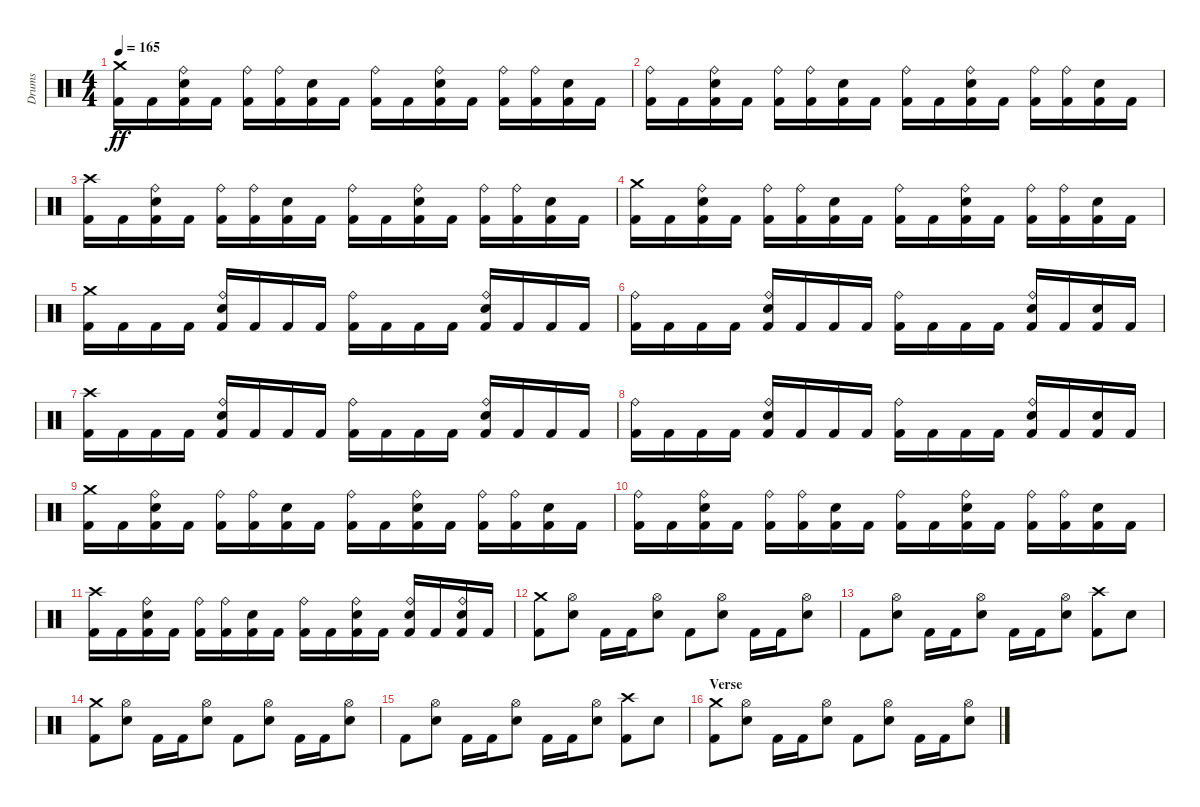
\track ("Drums" "Drums") {instrument percussion}
\staff {score}
\articulation defaults
\ts (4 4)
\tempo 165
\clef neutral
\ks c
("Crash medium (hit)" "Kick (hit) 2").16{dy ff} "Kick (hit) 2".16 ("Ride (bell)" "Electric Snare (hit)" "Kick (hit) 2").16 "Kick (hit) 2".16 ("Ride (bell)" "Kick (hit) 2").16 ("Ride (bell)" "Kick (hit) 2").16 ("Electric Snare (hit)" "Kick (hit) 2").16 "Kick (hit) 2".16 ("Ride (bell)" "Kick (hit) 2").16 "Kick (hit) 2".16 ("Ride (bell)" "Electric Snare (hit)" "Kick (hit) 2").16 "Kick (hit) 2".16 ("Ride (bell)" "Kick (hit) 2").16 ("Ride (bell)" "Kick (hit) 2").16 ("Electric Snare (hit)" "Kick (hit) 2").16 "Kick (hit) 2".16 |
("Ride (bell)" "Kick (hit) 2").16 "Kick (hit) 2".16 ("Ride (bell)" "Electric Snare (hit)" "Kick (hit) 2").16 "Kick (hit) 2".16 ("Ride (bell)" "Kick (hit) 2").16 ("Ride (bell)" "Kick (hit) 2").16 ("Electric Snare (hit)" "Kick (hit) 2").16 "Kick (hit) 2".16 ("Ride (bell)" "Kick (hit) 2").16 "Kick (hit) 2".16 ("Ride (bell)" "Electric Snare (hit)" "Kick (hit) 2").16 "Kick (hit) 2".16 ("Ride (bell)" "Kick (hit) 2").16 ("Ride (bell)" "Kick (hit) 2").16 ("Electric Snare (hit)" "Kick (hit) 2").16 "Kick (hit) 2".16 |
("Crash high (hit)" "Kick (hit) 2").16 "Kick (hit) 2".16 ("Ride (bell)" "Electric Snare (hit)" "Kick (hit) 2").16 "Kick (hit) 2".16 ("Ride (bell)" "Kick (hit) 2").16 ("Ride (bell)" "Kick (hit) 2").16 ("Electric Snare (hit)" "Kick (hit) 2").16 "Kick (hit) 2".16 ("Ride (bell)" "Kick (hit) 2").16 "Kick (hit) 2".16 ("Ride (bell)" "Electric Snare (hit)" "Kick (hit) 2").16 "Kick (hit) 2".16 ("Ride (bell)" "Kick (hit) 2").16 ("Ride (bell)" "Kick (hit) 2").16 ("Electric Snare (hit)" "Kick (hit) 2").16 "Kick (hit) 2".16 |
("Crash medium (hit)" "Kick (hit) 2").16 "Kick (hit) 2".16 ("Ride (bell)" "Electric Snare (hit)" "Kick (hit) 2").16 "Kick (hit) 2".16 ("Ride (bell)" "Kick (hit) 2").16 ("Ride (bell)" "Kick (hit) 2").16 ("Electric Snare (hit)" "Kick (hit) 2").16 "Kick (hit) 2".16 ("Ride (bell)" "Kick (hit) 2").16 "Kick (hit) 2".16 ("Ride (bell)" "Electric Snare (hit)" "Kick (hit) 2").16 "Kick (hit) 2".16 ("Ride (bell)" "Kick (hit) 2").16 ("Ride (bell)" "Kick (hit) 2").16 ("Electric Snare (hit)" "Kick (hit) 2").16 "Kick (hit) 2".16 |
("Crash medium (hit)" "Kick (hit) 2").16 "Kick (hit) 2".16 "Kick (hit) 2".16 "Kick (hit) 2".16 ("Ride (bell)" "Electric Snare (hit)" "Kick (hit) 2").16 "Kick (hit) 2".16 "Kick (hit) 2".16 "Kick (hit) 2".16 ("Ride (bell)" "Kick (hit) 2").16 "Kick (hit) 2".16 "Kick (hit) 2".16 "Kick (hit) 2".16 ("Ride (bell)" "Electric Snare (hit)" "Kick (hit) 2").16 "Kick (hit) 2".16 "Kick (hit) 2".16 "Kick (hit) 2".16 |
("Ride (bell)" "Kick (hit) 2").16 "Kick (hit) 2".16 "Kick (hit) 2".16 "Kick (hit) 2".16 ("Ride (bell)" "Electric Snare (hit)" "Kick (hit) 2").16 "Kick (hit) 2".16 "Kick (hit) 2".16 "Kick (hit) 2".16 ("Ride (bell)" "Kick (hit) 2").16 "Kick (hit) 2".16 "Kick (hit) 2".16 "Kick (hit) 2".16 ("Ride (bell)" "Electric Snare (hit)" "Kick (hit) 2").16 "Kick (hit) 2".16 ("Electric Snare (hit)" "Kick (hit) 2").16 "Kick (hit) 2".16 |
("Crash high (hit)" "Kick (hit) 2").16 "Kick (hit) 2".16 "Kick (hit) 2".16 "Kick (hit) 2".16 ("Ride (bell)" "Electric Snare (hit)" "Kick (hit) 2").16 "Kick (hit) 2".16 "Kick (hit) 2".16 "Kick (hit) 2".16 ("Ride (bell)" "Kick (hit) 2").16 "Kick (hit) 2".16 "Kick (hit) 2".16 "Kick (hit) 2".16 ("Ride (bell)" "Electric Snare (hit)" "Kick (hit) 2").16 "Kick (hit) 2".16 "Kick (hit) 2".16 "Kick (hit) 2".16 |
("Ride (bell)" "Kick (hit) 2").16 "Kick (hit) 2".16 "Kick (hit) 2".16 "Kick (hit) 2".16 ("Ride (bell)" "Electric Snare (hit)" "Kick (hit) 2").16 "Kick (hit) 2".16 "Kick (hit) 2".16 "Kick (hit) 2".16 ("Ride (bell)" "Kick (hit) 2").16 "Kick (hit) 2".16 "Kick (hit) 2".16 "Kick (hit) 2".16 ("Ride (bell)" "Electric Snare (hit)" "Kick (hit) 2").16 "Kick (hit) 2".16 ("Electric Snare (hit)" "Kick (hit) 2").16 "Kick (hit) 2".16 |
("Crash medium (hit)" "Kick (hit) 2").16 "Kick (hit) 2".16 ("Ride (bell)" "Electric Snare (hit)" "Kick (hit) 2").16 "Kick (hit) 2".16 ("Ride (bell)" "Kick (hit) 2").16 ("Ride (bell)" "Kick (hit) 2").16 ("Electric Snare (hit)" "Kick (hit) 2").16 "Kick (hit) 2".16 ("Ride (bell)" "Kick (hit) 2").16 "Kick (hit) 2".16 ("Ride (bell)" "Electric Snare (hit)" "Kick (hit) 2").16 "Kick (hit) 2".16 ("Ride (bell)" "Kick (hit) 2").16 ("Ride (bell)" "Kick (hit) 2").16 ("Electric Snare (hit)" "Kick (hit) 2").16 "Kick (hit) 2".16 |
("Ride (bell)" "Kick (hit) 2").16 "Kick (hit) 2".16 ("Ride (bell)" "Electric Snare (hit)" "Kick (hit) 2").16 "Kick (hit) 2".16 ("Ride (bell)" "Kick (hit) 2").16 ("Ride (bell)" "Kick (hit) 2").16 ("Electric Snare (hit)" "Kick (hit) 2").16 "Kick (hit) 2".16 ("Ride (bell)" "Kick (hit) 2").16 "Kick (hit) 2".16 ("Ride (bell)" "Electric Snare (hit)" "Kick (hit) 2").16 "Kick (hit) 2".16 ("Ride (bell)" "Kick (hit) 2").16 ("Ride (bell)" "Kick (hit) 2").16 ("Electric Snare (hit)" "Kick (hit) 2").16 "Kick (hit) 2".16 |
("Crash high (hit)" "Kick (hit) 2").16 "Kick (hit) 2".16 ("Ride (bell)" "Electric Snare (hit)" "Kick (hit) 2").16 "Kick (hit) 2".16 ("Ride (bell)" "Kick (hit) 2").16 ("Ride (bell)" "Kick (hit) 2").16 ("Electric Snare (hit)" "Kick (hit) 2").16 "Kick (hit) 2".16 ("Ride (bell)" "Kick (hit) 2").16 "Kick (hit) 2".16 ("Ride (bell)" "Electric Snare (hit)" "Kick (hit) 2").16 "Kick (hit) 2".16 ("Ride (bell)" "Electric Snare (hit)" "Kick (hit) 2").16 "Kick (hit) 2".16 ("Ride (bell)" "Electric Snare (hit)" "Kick (hit) 2").16 "Kick (hit) 2".16 |
("Crash medium (hit)" "Kick (hit) 2").8 ("Hi-Hat (open)" "Electric Snare (hit)").8 "Kick (hit) 2".16 "Kick (hit) 2".16 ("Hi-Hat (open)" "Electric Snare (hit)").8 "Kick (hit) 2".8 ("Hi-Hat (open)" "Electric Snare (hit)").8 "Kick (hit) 2".16 "Kick (hit) 2".16 ("Hi-Hat (open)" "Electric Snare (hit)").8 |
"Kick (hit) 2".8 ("Hi-Hat (open)" "Electric Snare (hit)").8 "Kick (hit) 2".16 "Kick (hit) 2".16 ("Hi-Hat (open)" "Electric Snare (hit)").8 "Kick (hit) 2".16 "Kick (hit) 2".16 ("Hi-Hat (open)" "Electric Snare (hit)").8 ("Crash high (hit)" "Kick (hit) 2").8 "Electric Snare (hit)".8 |
("Crash medium (hit)" "Kick (hit) 2").8 ("Hi-Hat (open)" "Electric Snare (hit)").8 "Kick (hit) 2".16 "Kick (hit) 2".16 ("Hi-Hat (open)" "Electric Snare (hit)").8 "Kick (hit) 2".8 ("Hi-Hat (open)" "Electric Snare (hit)").8 "Kick (hit) 2".16 "Kick (hit) 2".16 ("Hi-Hat (open)" "Electric Snare (hit)").8 |
"Kick (hit) 2".8 ("Hi-Hat (open)" "Electric Snare (hit)").8 "Kick (hit) 2".16 "Kick (hit) 2".16 ("Hi-Hat (open)" "Electric Snare (hit)").8 "Kick (hit) 2".16 "Kick (hit) 2".16 ("Hi-Hat (open)" "Electric Snare (hit)").8 ("Crash high (hit)" "Kick (hit) 2").8 "Electric Snare (hit)".8 |
\section ("" "Verse")
("Crash medium (hit)" "Kick (hit) 2").8 ("Hi-Hat (open)" "Electric Snare (hit)").8 "Kick (hit) 2".16 "Kick (hit) 2".16 ("Hi-Hat (open)" "Electric Snare (hit)").8 "Kick (hit) 2".8 ("Hi-Hat (open)" "Electric Snare (hit)").8 "Kick (hit) 2".16 "Kick (hit) 2".16 ("Hi-Hat (open)" "Electric Snare (hit)").8
